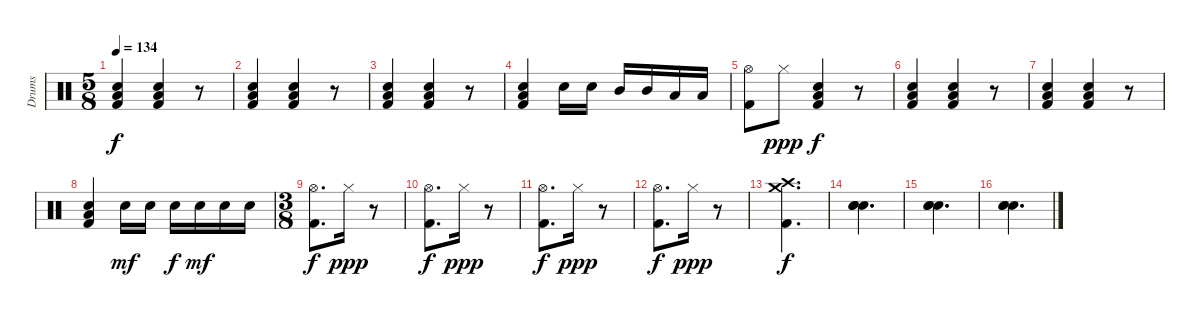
\track ("Drums" "Drums") {instrument percussion}
\staff {score}
\articulation defaults
\ts (5 8)
\tempo 134
\clef neutral
\ks c
("Low Tom (hit)" "Snare (hit) 2" "Kick (hit) 2").4{dy f} ("Low Tom (hit)" "Snare (hit) 2" "Kick (hit) 2").4 r.8 |
("Low Tom (hit)" "Snare (hit) 2" "Kick (hit) 2").4 ("Low Tom (hit)" "Snare (hit) 2" "Kick (hit) 2").4 r.8 |
("Low Tom (hit)" "Snare (hit) 2" "Kick (hit) 2").4 ("Low Tom (hit)" "Snare (hit) 2" "Kick (hit) 2").4 r.8 |
("Low Tom (hit)" "Snare (hit) 2" "Kick (hit) 2").4 "Snare (hit) 2".16 "Snare (hit) 2".16 "Mid Tom (hit)".16 "Mid Tom (hit)".16 "Low Tom (hit)".16 "Low Tom (hit)".16 |
("Hi-Hat (open)" "Kick (hit) 2").8 "Hi-Hat (closed)".8{dy ppp} ("Low Tom (hit)" "Snare (hit) 2" "Kick (hit) 2").4{dy f} r.8 |
("Low Tom (hit)" "Snare (hit) 2" "Kick (hit) 2").4 ("Low Tom (hit)" "Snare (hit) 2" "Kick (hit) 2").4 r.8 |
("Low Tom (hit)" "Snare (hit) 2" "Kick (hit) 2").4 ("Low Tom (hit)" "Snare (hit) 2" "Kick (hit) 2").4 r.8 |
("Low Tom (hit)" "Snare (hit) 2" "Kick (hit) 2").4 "Snare (hit) 2".16{dy mf} "Snare (hit) 2".16 "Snare (hit) 2".16{dy f} "Snare (hit) 2".16{dy mf} "Snare (hit) 2".16 "Snare (hit) 2".16 |
\ts (3 8)
("Hi-Hat (open)" "Kick (hit) 2").8{d dy f} "Hi-Hat (closed)".16{dy ppp} r.8 |
("Hi-Hat (open)" "Kick (hit) 2").8{d dy f} "Hi-Hat (closed)".16{dy ppp} r.8 |
("Hi-Hat (open)" "Kick (hit) 2").8{d dy f} "Hi-Hat (closed)".16{dy ppp} r.8 |
("Hi-Hat (open)" "Kick (hit) 2").8{d dy f} "Hi-Hat (closed)".16{dy ppp} r.8 |
("Crash high (hit)" "Crash medium (hit)" "Kick (hit) 2").4{d dy f} |
("Snare (hit)" "Snare (hit)" "Snare (hit)").4{d} |
("Snare (hit)" "Snare (hit)" "Snare (hit)").4{d} |
("Snare (hit)" "Snare (hit)" "Snare (hit)").4{d}
